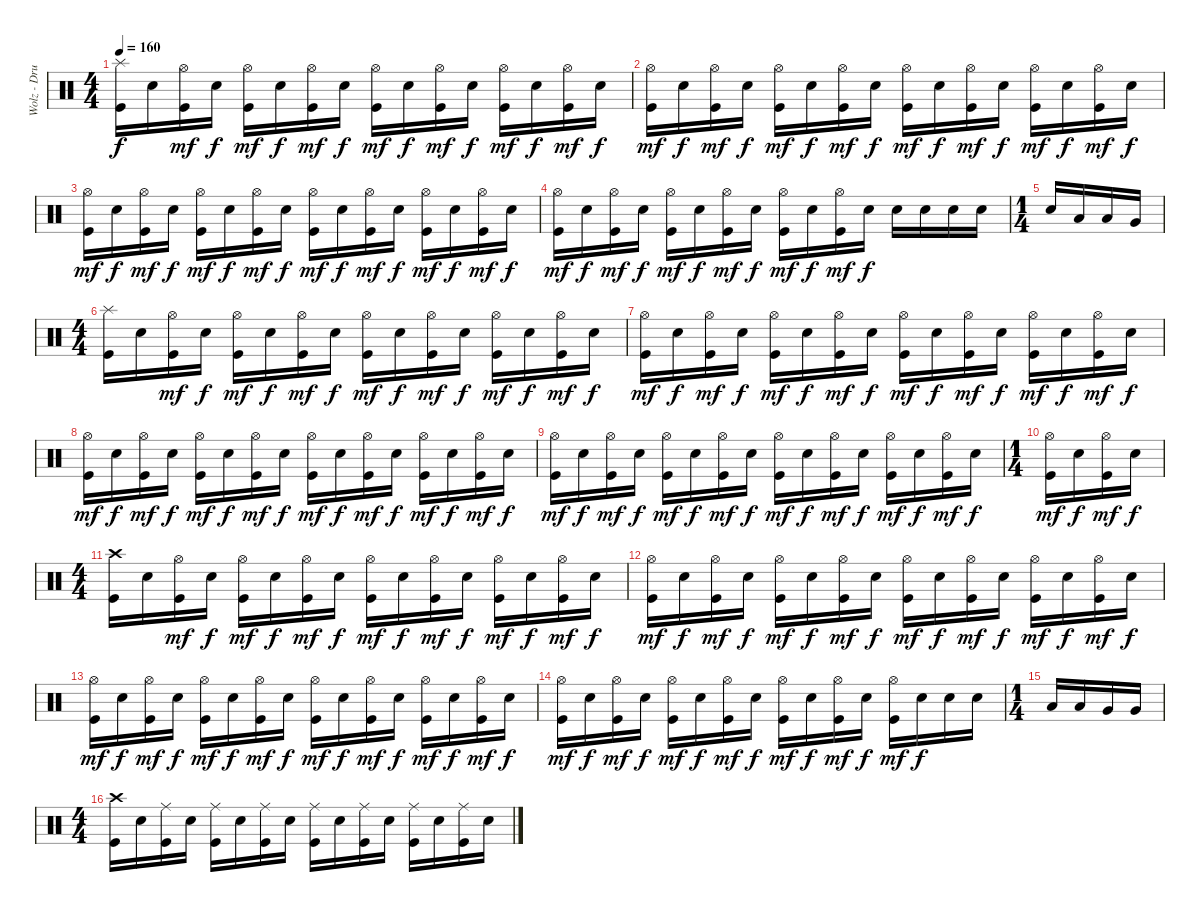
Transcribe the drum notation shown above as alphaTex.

\track ("Wolz - Drums" "Wolz - Dru") {instrument percussion}
\staff {score}
\articulation defaults
\ts (4 4)
\tempo 160
\clef neutral
\ks c
("Splash (hit)" "Kick (hit)").16{dy f} "Electric Snare (hit)".16 ("Hi-Hat (open)" "Kick (hit)").16{dy mf} "Electric Snare (hit)".16{dy f} ("Hi-Hat (open)" "Kick (hit)").16{dy mf} "Electric Snare (hit)".16{dy f} ("Hi-Hat (open)" "Kick (hit)").16{dy mf} "Electric Snare (hit)".16{dy f} ("Hi-Hat (open)" "Kick (hit)").16{dy mf} "Electric Snare (hit)".16{dy f} ("Hi-Hat (open)" "Kick (hit)").16{dy mf} "Electric Snare (hit)".16{dy f} ("Hi-Hat (open)" "Kick (hit)").16{dy mf} "Electric Snare (hit)".16{dy f} ("Hi-Hat (open)" "Kick (hit)").16{dy mf} "Electric Snare (hit)".16{dy f} |
("Hi-Hat (open)" "Kick (hit)").16{dy mf} "Electric Snare (hit)".16{dy f} ("Hi-Hat (open)" "Kick (hit)").16{dy mf} "Electric Snare (hit)".16{dy f} ("Hi-Hat (open)" "Kick (hit)").16{dy mf} "Electric Snare (hit)".16{dy f} ("Hi-Hat (open)" "Kick (hit)").16{dy mf} "Electric Snare (hit)".16{dy f} ("Hi-Hat (open)" "Kick (hit)").16{dy mf} "Electric Snare (hit)".16{dy f} ("Hi-Hat (open)" "Kick (hit)").16{dy mf} "Electric Snare (hit)".16{dy f} ("Hi-Hat (open)" "Kick (hit)").16{dy mf} "Electric Snare (hit)".16{dy f} ("Hi-Hat (open)" "Kick (hit)").16{dy mf} "Electric Snare (hit)".16{dy f} |
("Hi-Hat (open)" "Kick (hit)").16{dy mf} "Electric Snare (hit)".16{dy f} ("Hi-Hat (open)" "Kick (hit)").16{dy mf} "Electric Snare (hit)".16{dy f} ("Hi-Hat (open)" "Kick (hit)").16{dy mf} "Electric Snare (hit)".16{dy f} ("Hi-Hat (open)" "Kick (hit)").16{dy mf} "Electric Snare (hit)".16{dy f} ("Hi-Hat (open)" "Kick (hit)").16{dy mf} "Electric Snare (hit)".16{dy f} ("Hi-Hat (open)" "Kick (hit)").16{dy mf} "Electric Snare (hit)".16{dy f} ("Hi-Hat (open)" "Kick (hit)").16{dy mf} "Electric Snare (hit)".16{dy f} ("Hi-Hat (open)" "Kick (hit)").16{dy mf} "Electric Snare (hit)".16{dy f} |
("Hi-Hat (open)" "Kick (hit)").16{dy mf} "Electric Snare (hit)".16{dy f} ("Hi-Hat (open)" "Kick (hit)").16{dy mf} "Electric Snare (hit)".16{dy f} ("Hi-Hat (open)" "Kick (hit)").16{dy mf} "Electric Snare (hit)".16{dy f} ("Hi-Hat (open)" "Kick (hit)").16{dy mf} "Electric Snare (hit)".16{dy f} ("Hi-Hat (open)" "Kick (hit)").16{dy mf} "Electric Snare (hit)".16{dy f} ("Hi-Hat (open)" "Kick (hit)").16{dy mf} "Electric Snare (hit)".16{dy f} "Electric Snare (hit)".16 "Electric Snare (hit)".16 "Electric Snare (hit)".16 "Electric Snare (hit)".16 |
\ts (1 4)
"Electric Snare (hit)".16 "Low Tom (hit)".16 "Low Tom (hit)".16 "Very Low Tom (hit)".16 |
\ts (4 4)
("Splash (hit)" "Kick (hit)").16 "Electric Snare (hit)".16 ("Hi-Hat (open)" "Kick (hit)").16{dy mf} "Electric Snare (hit)".16{dy f} ("Hi-Hat (open)" "Kick (hit)").16{dy mf} "Electric Snare (hit)".16{dy f} ("Hi-Hat (open)" "Kick (hit)").16{dy mf} "Electric Snare (hit)".16{dy f} ("Hi-Hat (open)" "Kick (hit)").16{dy mf} "Electric Snare (hit)".16{dy f} ("Hi-Hat (open)" "Kick (hit)").16{dy mf} "Electric Snare (hit)".16{dy f} ("Hi-Hat (open)" "Kick (hit)").16{dy mf} "Electric Snare (hit)".16{dy f} ("Hi-Hat (open)" "Kick (hit)").16{dy mf} "Electric Snare (hit)".16{dy f} |
("Hi-Hat (open)" "Kick (hit)").16{dy mf} "Electric Snare (hit)".16{dy f} ("Hi-Hat (open)" "Kick (hit)").16{dy mf} "Electric Snare (hit)".16{dy f} ("Hi-Hat (open)" "Kick (hit)").16{dy mf} "Electric Snare (hit)".16{dy f} ("Hi-Hat (open)" "Kick (hit)").16{dy mf} "Electric Snare (hit)".16{dy f} ("Hi-Hat (open)" "Kick (hit)").16{dy mf} "Electric Snare (hit)".16{dy f} ("Hi-Hat (open)" "Kick (hit)").16{dy mf} "Electric Snare (hit)".16{dy f} ("Hi-Hat (open)" "Kick (hit)").16{dy mf} "Electric Snare (hit)".16{dy f} ("Hi-Hat (open)" "Kick (hit)").16{dy mf} "Electric Snare (hit)".16{dy f} |
("Hi-Hat (open)" "Kick (hit)").16{dy mf} "Electric Snare (hit)".16{dy f} ("Hi-Hat (open)" "Kick (hit)").16{dy mf} "Electric Snare (hit)".16{dy f} ("Hi-Hat (open)" "Kick (hit)").16{dy mf} "Electric Snare (hit)".16{dy f} ("Hi-Hat (open)" "Kick (hit)").16{dy mf} "Electric Snare (hit)".16{dy f} ("Hi-Hat (open)" "Kick (hit)").16{dy mf} "Electric Snare (hit)".16{dy f} ("Hi-Hat (open)" "Kick (hit)").16{dy mf} "Electric Snare (hit)".16{dy f} ("Hi-Hat (open)" "Kick (hit)").16{dy mf} "Electric Snare (hit)".16{dy f} ("Hi-Hat (open)" "Kick (hit)").16{dy mf} "Electric Snare (hit)".16{dy f} |
("Hi-Hat (open)" "Kick (hit)").16{dy mf} "Electric Snare (hit)".16{dy f} ("Hi-Hat (open)" "Kick (hit)").16{dy mf} "Electric Snare (hit)".16{dy f} ("Hi-Hat (open)" "Kick (hit)").16{dy mf} "Electric Snare (hit)".16{dy f} ("Hi-Hat (open)" "Kick (hit)").16{dy mf} "Electric Snare (hit)".16{dy f} ("Hi-Hat (open)" "Kick (hit)").16{dy mf} "Electric Snare (hit)".16{dy f} ("Hi-Hat (open)" "Kick (hit)").16{dy mf} "Electric Snare (hit)".16{dy f} ("Hi-Hat (open)" "Kick (hit)").16{dy mf} "Electric Snare (hit)".16{dy f} ("Hi-Hat (open)" "Kick (hit)").16{dy mf} "Electric Snare (hit)".16{dy f} |
\ts (1 4)
("Hi-Hat (open)" "Kick (hit)").16{dy mf} "Electric Snare (hit)".16{dy f} ("Hi-Hat (open)" "Kick (hit)").16{dy mf} "Electric Snare (hit)".16{dy f} |
\ts (4 4)
("Crash high (hit)" "Kick (hit)").16 "Electric Snare (hit)".16 ("Hi-Hat (open)" "Kick (hit)").16{dy mf} "Electric Snare (hit)".16{dy f} ("Hi-Hat (open)" "Kick (hit)").16{dy mf} "Electric Snare (hit)".16{dy f} ("Hi-Hat (open)" "Kick (hit)").16{dy mf} "Electric Snare (hit)".16{dy f} ("Hi-Hat (open)" "Kick (hit)").16{dy mf} "Electric Snare (hit)".16{dy f} ("Hi-Hat (open)" "Kick (hit)").16{dy mf} "Electric Snare (hit)".16{dy f} ("Hi-Hat (open)" "Kick (hit)").16{dy mf} "Electric Snare (hit)".16{dy f} ("Hi-Hat (open)" "Kick (hit)").16{dy mf} "Electric Snare (hit)".16{dy f} |
("Hi-Hat (open)" "Kick (hit)").16{dy mf} "Electric Snare (hit)".16{dy f} ("Hi-Hat (open)" "Kick (hit)").16{dy mf} "Electric Snare (hit)".16{dy f} ("Hi-Hat (open)" "Kick (hit)").16{dy mf} "Electric Snare (hit)".16{dy f} ("Hi-Hat (open)" "Kick (hit)").16{dy mf} "Electric Snare (hit)".16{dy f} ("Hi-Hat (open)" "Kick (hit)").16{dy mf} "Electric Snare (hit)".16{dy f} ("Hi-Hat (open)" "Kick (hit)").16{dy mf} "Electric Snare (hit)".16{dy f} ("Hi-Hat (open)" "Kick (hit)").16{dy mf} "Electric Snare (hit)".16{dy f} ("Hi-Hat (open)" "Kick (hit)").16{dy mf} "Electric Snare (hit)".16{dy f} |
("Hi-Hat (open)" "Kick (hit)").16{dy mf} "Electric Snare (hit)".16{dy f} ("Hi-Hat (open)" "Kick (hit)").16{dy mf} "Electric Snare (hit)".16{dy f} ("Hi-Hat (open)" "Kick (hit)").16{dy mf} "Electric Snare (hit)".16{dy f} ("Hi-Hat (open)" "Kick (hit)").16{dy mf} "Electric Snare (hit)".16{dy f} ("Hi-Hat (open)" "Kick (hit)").16{dy mf} "Electric Snare (hit)".16{dy f} ("Hi-Hat (open)" "Kick (hit)").16{dy mf} "Electric Snare (hit)".16{dy f} ("Hi-Hat (open)" "Kick (hit)").16{dy mf} "Electric Snare (hit)".16{dy f} ("Hi-Hat (open)" "Kick (hit)").16{dy mf} "Electric Snare (hit)".16{dy f} |
("Hi-Hat (open)" "Kick (hit)").16{dy mf} "Electric Snare (hit)".16{dy f} ("Hi-Hat (open)" "Kick (hit)").16{dy mf} "Electric Snare (hit)".16{dy f} ("Hi-Hat (open)" "Kick (hit)").16{dy mf} "Electric Snare (hit)".16{dy f} ("Hi-Hat (open)" "Kick (hit)").16{dy mf} "Electric Snare (hit)".16{dy f} ("Hi-Hat (open)" "Kick (hit)").16{dy mf} "Electric Snare (hit)".16{dy f} ("Hi-Hat (open)" "Kick (hit)").16{dy mf} "Electric Snare (hit)".16{dy f} ("Hi-Hat (open)" "Kick (hit)").16{dy mf} "Electric Snare (hit)".16{dy f} "Electric Snare (hit)".16 "Electric Snare (hit)".16 |
\ts (1 4)
"Low Tom (hit)".16 "Low Tom (hit)".16 "Very Low Tom (hit)".16 "Very Low Tom (hit)".16 |
\ts (4 4)
("Crash high (hit)" "Kick (hit)").16 "Electric Snare (hit)".16 ("Ride (middle)" "Kick (hit)").16 "Electric Snare (hit)".16 ("Ride (middle)" "Kick (hit)").16 "Electric Snare (hit)".16 ("Ride (middle)" "Kick (hit)").16 "Electric Snare (hit)".16 ("Ride (middle)" "Kick (hit)").16 "Electric Snare (hit)".16 ("Ride (middle)" "Kick (hit)").16 "Electric Snare (hit)".16 ("Ride (middle)" "Kick (hit)").16 "Electric Snare (hit)".16 ("Ride (middle)" "Kick (hit)").16 "Electric Snare (hit)".16
